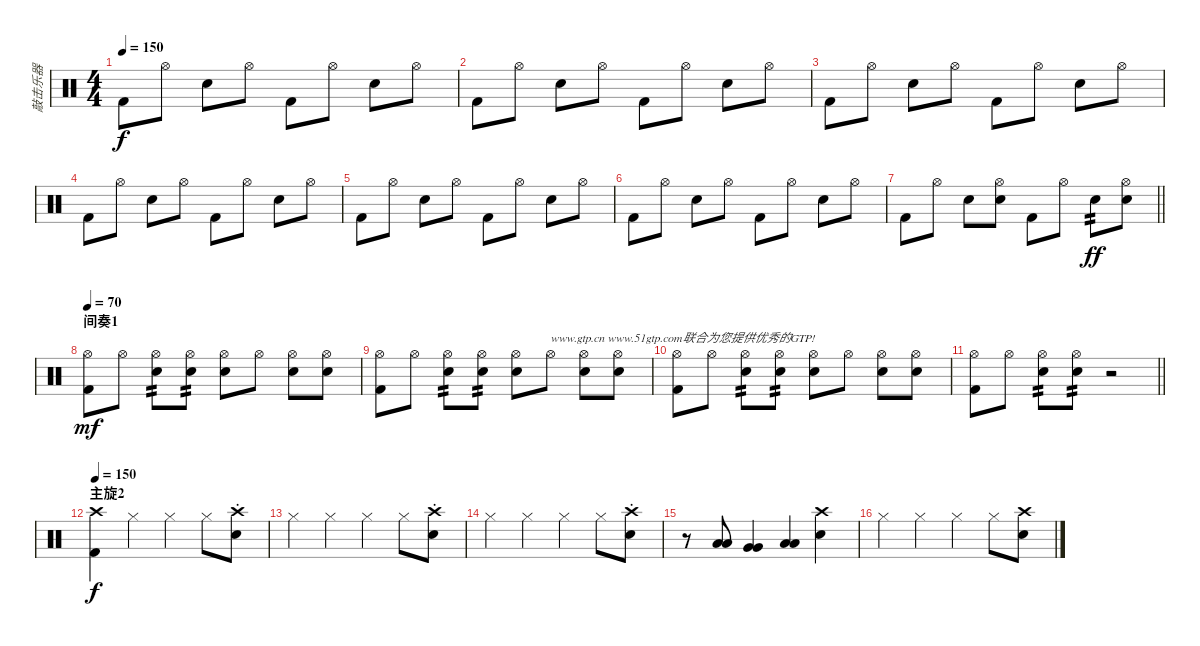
\track ("敲击乐器" "敲击乐器") {instrument percussion}
\staff {score}
\articulation defaults
\ts (4 4)
\tempo 150
\clef neutral
\ks c "Kick (hit) 2".8{dy f} "Hi-Hat (open)".8 "Snare (hit) 2".8 "Hi-Hat (open)".8 "Kick (hit) 2".8 "Hi-Hat (open)".8 "Snare (hit) 2".8 "Hi-Hat (open)".8
|
"Kick (hit) 2".8 "Hi-Hat (open)".8 "Snare (hit) 2".8 "Hi-Hat (open)".8 "Kick (hit) 2".8 "Hi-Hat (open)".8 "Snare (hit) 2".8 "Hi-Hat (open)".8 |
"Kick (hit) 2".8 "Hi-Hat (open)".8 "Snare (hit) 2".8 "Hi-Hat (open)".8 "Kick (hit) 2".8 "Hi-Hat (open)".8 "Snare (hit) 2".8 "Hi-Hat (open)".8 |
"Kick (hit) 2".8 "Hi-Hat (open)".8 "Snare (hit) 2".8 "Hi-Hat (open)".8 "Kick (hit) 2".8 "Hi-Hat (open)".8 "Snare (hit) 2".8 "Hi-Hat (open)".8 |
"Kick (hit) 2".8 "Hi-Hat (open)".8 "Snare (hit) 2".8 "Hi-Hat (open)".8 "Kick (hit) 2".8 "Hi-Hat (open)".8 "Snare (hit) 2".8 "Hi-Hat (open)".8 |
"Kick (hit) 2".8 "Hi-Hat (open)".8 "Snare (hit) 2".8 "Hi-Hat (open)".8 "Kick (hit) 2".8 "Hi-Hat (open)".8 "Snare (hit) 2".8 "Hi-Hat (open)".8 |
\barLineRight lightlight "Kick (hit) 2".8 "Hi-Hat (open)".8 "Snare (hit) 2".8
("Hi-Hat (open)" "Snare (hit) 2").8 "Kick (hit) 2".8 "Hi-Hat (open)".8 "Snare (hit) 2".8{tp 2 dy ff} ("Hi-Hat (open)" "Snare (hit) 2").8 |
\section ("" "间奏1")
\tempo 70
("Hi-Hat (open)" "Kick (hit) 2").8{dy mf} "Hi-Hat (open)".8 ("Hi-Hat (open)" "Snare (hit) 2").8{tp 2} ("Hi-Hat (open)" "Snare (hit) 2").8{tp 2} ("Hi-Hat (open)" "Snare (hit) 2").8 "Hi-Hat (open)".8 ("Hi-Hat (open)" "Snare (hit) 2").8 ("Hi-Hat (open)" "Snare (hit) 2").8 |
("Hi-Hat (open)" "Kick (hit) 2").8 "Hi-Hat (open)".8 ("Hi-Hat (open)" "Snare (hit) 2").8{tp 2} ("Hi-Hat (open)" "Snare (hit) 2").8{tp 2} ("Hi-Hat (open)" "Snare (hit) 2").8 "Hi-Hat (open)".8{txt "www.gtp.cn www.51gtp.com联合为您提供优秀的GTP!"} ("Hi-Hat (open)" "Snare (hit) 2").8 ("Hi-Hat (open)" "Snare (hit) 2").8 |
("Hi-Hat (open)" "Kick (hit) 2").8 "Hi-Hat (open)".8 ("Hi-Hat (open)" "Snare (hit) 2").8{tp 2} ("Hi-Hat (open)" "Snare (hit) 2").8{tp 2} ("Hi-Hat (open)" "Snare (hit) 2").8 "Hi-Hat (open)".8 ("Hi-Hat (open)" "Snare (hit) 2").8 ("Hi-Hat (open)" "Snare (hit) 2").8 |
\barLineRight lightlight
("Hi-Hat (open)" "Kick (hit) 2").8 "Hi-Hat (open)".8 ("Hi-Hat (open)" "Snare (hit) 2").8{tp 2} ("Hi-Hat (open)" "Snare (hit) 2").8{tp 2} r.2 |
\section ("" "主旋2")
\tempo 150
("Crash high (hit)" "Kick (hit) 2").4{dy f} "Hi-Hat (closed)".4 "Hi-Hat (closed)".4 "Hi-Hat (closed)".8 ("Crash high (hit)"{st} "Snare (hit) 2").8 |
"Hi-Hat (closed)".4 "Hi-Hat (closed)".4 "Hi-Hat (closed)".4 "Hi-Hat (closed)".8 ("Crash high (hit)"{st} "Snare (hit) 2").8 |
"Hi-Hat (closed)".4 "Hi-Hat (closed)".4 "Hi-Hat (closed)".4 "Hi-Hat (closed)".8 ("Crash high (hit)"{st} "Snare (hit) 2").8 |
r.8 ("Low Tom (hit)" "Low Tom (hit)").8 ("Very Low Tom (hit)" "Very Low Tom (hit)").4 ("Low Floor Tom (hit)" "Low Floor Tom (hit)").4 ("Crash high (hit)" "Snare (hit) 2").4 |
"Hi-Hat (closed)".4 "Hi-Hat (closed)".4 "Hi-Hat (closed)".4 "Hi-Hat (closed)".8 ("Crash high (hit)" "Snare (hit) 2").8
